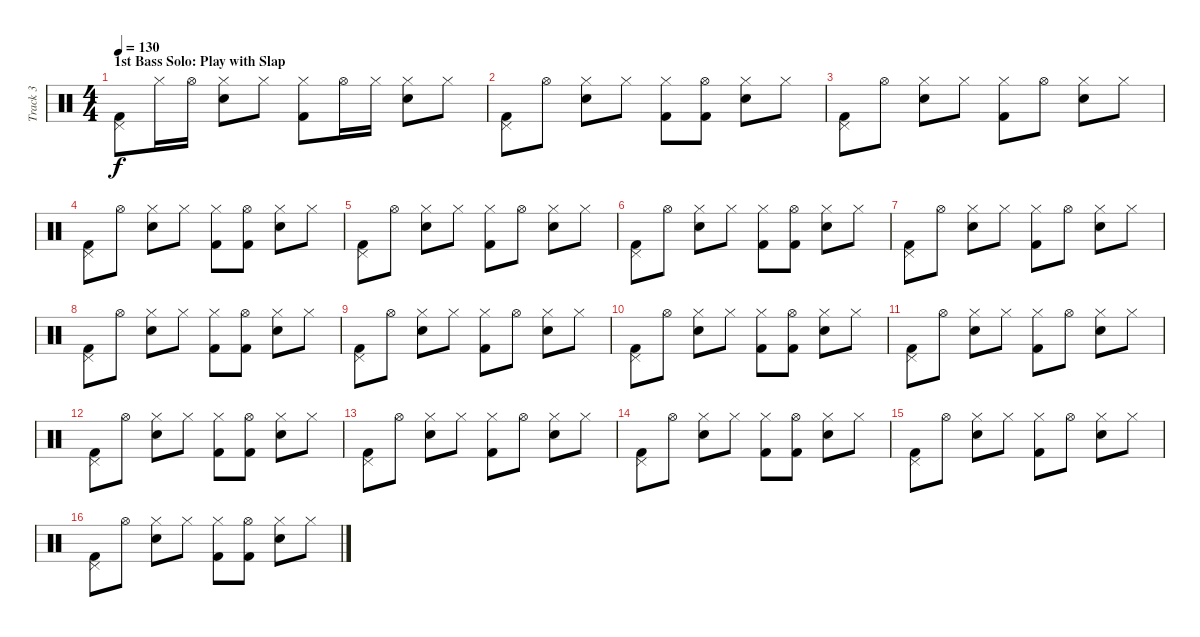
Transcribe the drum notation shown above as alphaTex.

\track ("Track 3" "Track 3") {instrument percussion}
\staff {score}
\articulation defaults
\ts (4 4)
\section ("" "1st Bass Solo: Play with Slap")
\tempo 130
\clef neutral
\ks c
("Pedal Hi-Hat (hit)" "Kick (hit) 2").8{dy f} "Hi-Hat (closed)".16 "Hi-Hat (open)".16 ("Hi-Hat (closed)" "Snare (hit) 2").8 "Hi-Hat (closed)".8 ("Hi-Hat (closed)" "Kick (hit) 2").8 "Hi-Hat (open)".16 "Hi-Hat (closed)".16 ("Hi-Hat (closed)" "Snare (hit) 2").8 "Hi-Hat (closed)".8 |
("Pedal Hi-Hat (hit)" "Kick (hit) 2").8 "Hi-Hat (open)".8 ("Hi-Hat (closed)" "Snare (hit) 2").8 "Hi-Hat (closed)".8 ("Hi-Hat (closed)" "Kick (hit) 2").8 ("Hi-Hat (open)" "Kick (hit) 2").8 ("Hi-Hat (closed)" "Snare (hit) 2").8 "Hi-Hat (closed)".8 |
("Pedal Hi-Hat (hit)" "Kick (hit) 2").8 "Hi-Hat (open)".8 ("Hi-Hat (closed)" "Snare (hit) 2").8 "Hi-Hat (closed)".8 ("Hi-Hat (closed)" "Kick (hit) 2").8 "Hi-Hat (open)".8 ("Hi-Hat (closed)" "Snare (hit) 2").8 "Hi-Hat (closed)".8 |
("Pedal Hi-Hat (hit)" "Kick (hit) 2").8 "Hi-Hat (open)".8 ("Hi-Hat (closed)" "Snare (hit) 2").8 "Hi-Hat (closed)".8 ("Hi-Hat (closed)" "Kick (hit) 2").8 ("Hi-Hat (open)" "Kick (hit) 2").8 ("Hi-Hat (closed)" "Snare (hit) 2").8 "Hi-Hat (closed)".8 |
("Pedal Hi-Hat (hit)" "Kick (hit) 2").8 "Hi-Hat (open)".8 ("Hi-Hat (closed)" "Snare (hit) 2").8 "Hi-Hat (closed)".8 ("Hi-Hat (closed)" "Kick (hit) 2").8 "Hi-Hat (open)".8 ("Hi-Hat (closed)" "Snare (hit) 2").8 "Hi-Hat (closed)".8 |
("Pedal Hi-Hat (hit)" "Kick (hit) 2").8 "Hi-Hat (open)".8 ("Hi-Hat (closed)" "Snare (hit) 2").8 "Hi-Hat (closed)".8 ("Hi-Hat (closed)" "Kick (hit) 2").8 ("Hi-Hat (open)" "Kick (hit) 2").8 ("Hi-Hat (closed)" "Snare (hit) 2").8 "Hi-Hat (closed)".8 |
("Pedal Hi-Hat (hit)" "Kick (hit) 2").8 "Hi-Hat (open)".8 ("Hi-Hat (closed)" "Snare (hit) 2").8 "Hi-Hat (closed)".8 ("Hi-Hat (closed)" "Kick (hit) 2").8 "Hi-Hat (open)".8 ("Hi-Hat (closed)" "Snare (hit) 2").8 "Hi-Hat (closed)".8 |
("Pedal Hi-Hat (hit)" "Kick (hit) 2").8 "Hi-Hat (open)".8 ("Hi-Hat (closed)" "Snare (hit) 2").8 "Hi-Hat (closed)".8 ("Hi-Hat (closed)" "Kick (hit) 2").8 ("Hi-Hat (open)" "Kick (hit) 2").8 ("Hi-Hat (closed)" "Snare (hit) 2").8 "Hi-Hat (closed)".8 |
("Pedal Hi-Hat (hit)" "Kick (hit) 2").8 "Hi-Hat (open)".8 ("Hi-Hat (closed)" "Snare (hit) 2").8 "Hi-Hat (closed)".8 ("Hi-Hat (closed)" "Kick (hit) 2").8 "Hi-Hat (open)".8 ("Hi-Hat (closed)" "Snare (hit) 2").8 "Hi-Hat (closed)".8 |
("Pedal Hi-Hat (hit)" "Kick (hit) 2").8 "Hi-Hat (open)".8 ("Hi-Hat (closed)" "Snare (hit) 2").8 "Hi-Hat (closed)".8 ("Hi-Hat (closed)" "Kick (hit) 2").8 ("Hi-Hat (open)" "Kick (hit) 2").8 ("Hi-Hat (closed)" "Snare (hit) 2").8 "Hi-Hat (closed)".8 |
("Pedal Hi-Hat (hit)" "Kick (hit) 2").8 "Hi-Hat (open)".8 ("Hi-Hat (closed)" "Snare (hit) 2").8 "Hi-Hat (closed)".8 ("Hi-Hat (closed)" "Kick (hit) 2").8 "Hi-Hat (open)".8 ("Hi-Hat (closed)" "Snare (hit) 2").8 "Hi-Hat (closed)".8 |
("Pedal Hi-Hat (hit)" "Kick (hit) 2").8 "Hi-Hat (open)".8 ("Hi-Hat (closed)" "Snare (hit) 2").8 "Hi-Hat (closed)".8 ("Hi-Hat (closed)" "Kick (hit) 2").8 ("Hi-Hat (open)" "Kick (hit) 2").8 ("Hi-Hat (closed)" "Snare (hit) 2").8 "Hi-Hat (closed)".8 |
("Pedal Hi-Hat (hit)" "Kick (hit) 2").8 "Hi-Hat (open)".8 ("Hi-Hat (closed)" "Snare (hit) 2").8 "Hi-Hat (closed)".8 ("Hi-Hat (closed)" "Kick (hit) 2").8 "Hi-Hat (open)".8 ("Hi-Hat (closed)" "Snare (hit) 2").8 "Hi-Hat (closed)".8 |
("Pedal Hi-Hat (hit)" "Kick (hit) 2").8 "Hi-Hat (open)".8 ("Hi-Hat (closed)" "Snare (hit) 2").8 "Hi-Hat (closed)".8 ("Hi-Hat (closed)" "Kick (hit) 2").8 ("Hi-Hat (open)" "Kick (hit) 2").8 ("Hi-Hat (closed)" "Snare (hit) 2").8 "Hi-Hat (closed)".8 |
("Pedal Hi-Hat (hit)" "Kick (hit) 2").8 "Hi-Hat (open)".8 ("Hi-Hat (closed)" "Snare (hit) 2").8 "Hi-Hat (closed)".8 ("Hi-Hat (closed)" "Kick (hit) 2").8 "Hi-Hat (open)".8 ("Hi-Hat (closed)" "Snare (hit) 2").8 "Hi-Hat (closed)".8 |
("Pedal Hi-Hat (hit)" "Kick (hit) 2").8 "Hi-Hat (open)".8 ("Hi-Hat (closed)" "Snare (hit) 2").8 "Hi-Hat (closed)".8 ("Hi-Hat (closed)" "Kick (hit) 2").8 ("Hi-Hat (open)" "Kick (hit) 2").8 ("Hi-Hat (closed)" "Snare (hit) 2").8 "Hi-Hat (closed)".8
